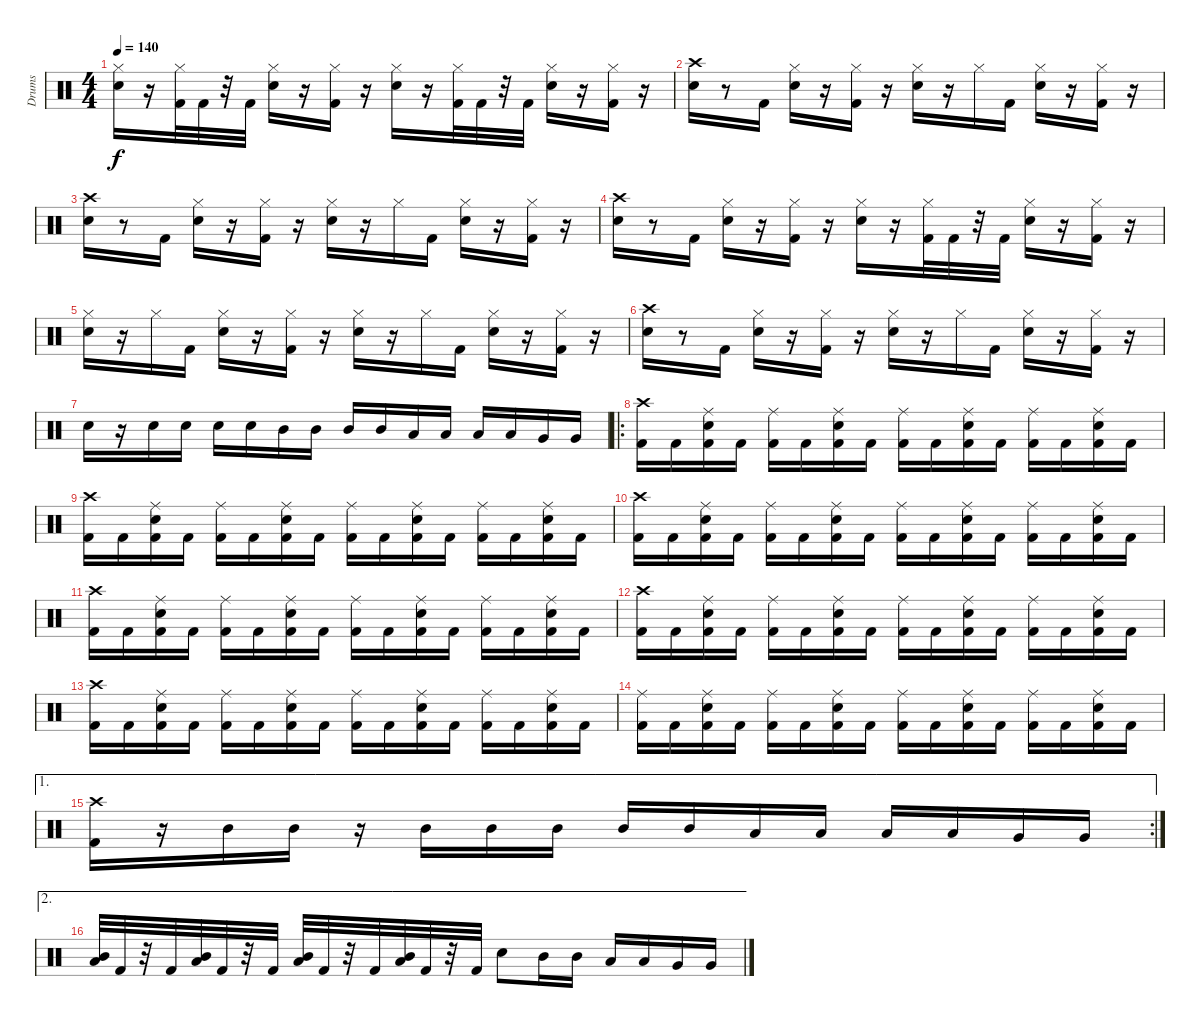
\track ("Drums" "Drums") {instrument percussion}
\staff {score}
\articulation defaults
\ts (4 4)
\tempo 140
\clef neutral
\ks c
("Snare (hit) 2" "Hi-Hat (closed)").16{dy f} r.16 ("Kick (hit) 2" "Hi-Hat (closed)").32 "Kick (hit) 2".32 r.32 "Kick (hit) 2".32 ("Snare (hit) 2" "Hi-Hat (closed)").16 r.16 ("Kick (hit) 2" "Hi-Hat (closed)").16 r.16 ("Snare (hit) 2" "Hi-Hat (closed)").16 r.16 ("Kick (hit) 2" "Hi-Hat (closed)").32 "Kick (hit) 2".32 r.32 "Kick (hit) 2".32 ("Snare (hit) 2" "Hi-Hat (closed)").16 r.16 ("Kick (hit) 2" "Hi-Hat (closed)").16 r.16 |
("Snare (hit) 2" "Crash high (hit)").16 r.8 "Kick (hit) 2".16 ("Snare (hit) 2" "Hi-Hat (closed)").16 r.16 ("Kick (hit) 2" "Hi-Hat (closed)").16 r.16 ("Snare (hit) 2" "Hi-Hat (closed)").16 r.16 "Hi-Hat (closed)".16 "Kick (hit) 2".16 ("Snare (hit) 2" "Hi-Hat (closed)").16 r.16 ("Kick (hit) 2" "Hi-Hat (closed)").16 r.16 |
("Snare (hit) 2" "Crash high (hit)").16 r.8 "Kick (hit) 2".16 ("Snare (hit) 2" "Hi-Hat (closed)").16 r.16 ("Kick (hit) 2" "Hi-Hat (closed)").16 r.16 ("Snare (hit) 2" "Hi-Hat (closed)").16 r.16 "Hi-Hat (closed)".16 "Kick (hit) 2".16 ("Snare (hit) 2" "Hi-Hat (closed)").16 r.16 ("Kick (hit) 2" "Hi-Hat (closed)").16 r.16 |
("Snare (hit) 2" "Crash high (hit)").16 r.8 "Kick (hit) 2".16 ("Snare (hit) 2" "Hi-Hat (closed)").16 r.16 ("Kick (hit) 2" "Hi-Hat (closed)").16 r.16 ("Snare (hit) 2" "Hi-Hat (closed)").16 r.16 ("Kick (hit) 2" "Hi-Hat (closed)").32 "Kick (hit) 2".32 r.32 "Kick (hit) 2".32 ("Snare (hit) 2" "Hi-Hat (closed)").16 r.16 ("Kick (hit) 2" "Hi-Hat (closed)").16 r.16 |
("Snare (hit) 2" "Hi-Hat (closed)").16 r.16 "Hi-Hat (closed)".16 "Kick (hit) 2".16 ("Snare (hit) 2" "Hi-Hat (closed)").16 r.16 ("Kick (hit) 2" "Hi-Hat (closed)").16 r.16 ("Snare (hit) 2" "Hi-Hat (closed)").16 r.16 "Hi-Hat (closed)".16 "Kick (hit) 2".16 ("Snare (hit) 2" "Hi-Hat (closed)").16 r.16 ("Kick (hit) 2" "Hi-Hat (closed)").16 r.16 |
("Snare (hit) 2" "Crash high (hit)").16 r.8 "Kick (hit) 2".16 ("Snare (hit) 2" "Hi-Hat (closed)").16 r.16 ("Kick (hit) 2" "Hi-Hat (closed)").16 r.16 ("Snare (hit) 2" "Hi-Hat (closed)").16 r.16 "Hi-Hat (closed)".16 "Kick (hit) 2".16 ("Snare (hit) 2" "Hi-Hat (closed)").16 r.16 ("Kick (hit) 2" "Hi-Hat (closed)").16 r.16 |
"Snare (hit) 2".16 r.16 "Snare (hit) 2".16 "Snare (hit) 2".16 "Snare (hit) 2".16 "Snare (hit) 2".16 "Mid Tom (hit)".16 "Mid Tom (hit)".16 "Mid Tom (hit)".16 "Mid Tom (hit)".16 "Low Tom (hit)".16 "Low Tom (hit)".16 "Low Tom (hit)".16 "Low Tom (hit)".16 "Very Low Tom (hit)".16 "Very Low Tom (hit)".16 |
\ro
("Kick (hit) 2" "Crash high (hit)").16 "Kick (hit) 2".16 ("Kick (hit) 2" "Snare (hit) 2" "Ride (middle)").16 "Kick (hit) 2".16 ("Kick (hit) 2" "Ride (middle)").16 "Kick (hit) 2".16 ("Kick (hit) 2" "Snare (hit) 2" "Ride (middle)").16 "Kick (hit) 2".16 ("Kick (hit) 2" "Ride (middle)").16 "Kick (hit) 2".16 ("Kick (hit) 2" "Snare (hit) 2" "Ride (middle)").16 "Kick (hit) 2".16 ("Kick (hit) 2" "Ride (middle)").16 "Kick (hit) 2".16 ("Kick (hit) 2" "Snare (hit) 2" "Ride (middle)").16 "Kick (hit) 2".16 |
("Kick (hit) 2" "Crash high (hit)").16 "Kick (hit) 2".16 ("Kick (hit) 2" "Snare (hit) 2" "Ride (middle)").16 "Kick (hit) 2".16 ("Kick (hit) 2" "Ride (middle)").16 "Kick (hit) 2".16 ("Kick (hit) 2" "Snare (hit) 2" "Ride (middle)").16 "Kick (hit) 2".16 ("Kick (hit) 2" "Ride (middle)").16 "Kick (hit) 2".16 ("Kick (hit) 2" "Snare (hit) 2" "Ride (middle)").16 "Kick (hit) 2".16 ("Kick (hit) 2" "Ride (middle)").16 "Kick (hit) 2".16 ("Kick (hit) 2" "Snare (hit) 2" "Ride (middle)").16 "Kick (hit) 2".16 |
("Kick (hit) 2" "Crash high (hit)").16 "Kick (hit) 2".16 ("Kick (hit) 2" "Snare (hit) 2" "Ride (middle)").16 "Kick (hit) 2".16 ("Kick (hit) 2" "Ride (middle)").16 "Kick (hit) 2".16 ("Kick (hit) 2" "Snare (hit) 2" "Ride (middle)").16 "Kick (hit) 2".16 ("Kick (hit) 2" "Ride (middle)").16 "Kick (hit) 2".16 ("Kick (hit) 2" "Snare (hit) 2" "Ride (middle)").16 "Kick (hit) 2".16 ("Kick (hit) 2" "Ride (middle)").16 "Kick (hit) 2".16 ("Kick (hit) 2" "Snare (hit) 2" "Ride (middle)").16 "Kick (hit) 2".16 |
("Kick (hit) 2" "Crash high (hit)").16 "Kick (hit) 2".16 ("Kick (hit) 2" "Snare (hit) 2" "Ride (middle)").16 "Kick (hit) 2".16 ("Kick (hit) 2" "Ride (middle)").16 "Kick (hit) 2".16 ("Kick (hit) 2" "Snare (hit) 2" "Ride (middle)").16 "Kick (hit) 2".16 ("Kick (hit) 2" "Ride (middle)").16 "Kick (hit) 2".16 ("Kick (hit) 2" "Snare (hit) 2" "Ride (middle)").16 "Kick (hit) 2".16 ("Kick (hit) 2" "Ride (middle)").16 "Kick (hit) 2".16 ("Kick (hit) 2" "Snare (hit) 2" "Ride (middle)").16 "Kick (hit) 2".16 |
("Kick (hit) 2" "Crash high (hit)").16 "Kick (hit) 2".16 ("Kick (hit) 2" "Snare (hit) 2" "Ride (middle)").16 "Kick (hit) 2".16 ("Kick (hit) 2" "Ride (middle)").16 "Kick (hit) 2".16 ("Kick (hit) 2" "Snare (hit) 2" "Ride (middle)").16 "Kick (hit) 2".16 ("Kick (hit) 2" "Ride (middle)").16 "Kick (hit) 2".16 ("Kick (hit) 2" "Snare (hit) 2" "Ride (middle)").16 "Kick (hit) 2".16 ("Kick (hit) 2" "Ride (middle)").16 "Kick (hit) 2".16 ("Kick (hit) 2" "Snare (hit) 2" "Ride (middle)").16 "Kick (hit) 2".16 |
("Kick (hit) 2" "Crash high (hit)").16 "Kick (hit) 2".16 ("Kick (hit) 2" "Snare (hit) 2" "Ride (middle)").16 "Kick (hit) 2".16 ("Kick (hit) 2" "Ride (middle)").16 "Kick (hit) 2".16 ("Kick (hit) 2" "Snare (hit) 2" "Ride (middle)").16 "Kick (hit) 2".16 ("Kick (hit) 2" "Ride (middle)").16 "Kick (hit) 2".16 ("Kick (hit) 2" "Snare (hit) 2" "Ride (middle)").16 "Kick (hit) 2".16 ("Kick (hit) 2" "Ride (middle)").16 "Kick (hit) 2".16 ("Kick (hit) 2" "Snare (hit) 2" "Ride (middle)").16 "Kick (hit) 2".16 |
("Kick (hit) 2" "Ride (middle)").16 "Kick (hit) 2".16 ("Kick (hit) 2" "Snare (hit) 2" "Ride (middle)").16 "Kick (hit) 2".16 ("Kick (hit) 2" "Ride (middle)").16 "Kick (hit) 2".16 ("Kick (hit) 2" "Snare (hit) 2" "Ride (middle)").16 "Kick (hit) 2".16 ("Kick (hit) 2" "Ride (middle)").16 "Kick (hit) 2".16 ("Kick (hit) 2" "Snare (hit) 2" "Ride (middle)").16 "Kick (hit) 2".16 ("Kick (hit) 2" "Ride (middle)").16 "Kick (hit) 2".16 ("Kick (hit) 2" "Snare (hit) 2" "Ride (middle)").16 "Kick (hit) 2".16 |
\ae 1
\rc 2
("Kick (hit) 2" "Crash high (hit)").16 r.16 "Mid Tom (hit)".16 "Mid Tom (hit)".16 r.16 "Mid Tom (hit)".16 "Mid Tom (hit)".16 "Mid Tom (hit)".16 "Mid Tom (hit)".16 "Mid Tom (hit)".16 "Low Tom (hit)".16 "Low Tom (hit)".16 "Low Tom (hit)".16 "Low Tom (hit)".16 "Very Low Tom (hit)".16 "Very Low Tom (hit)".16 |
\ae 2
("Mid Tom (hit)" "Low Tom (hit)").32 "Kick (hit) 2".32 r.32 "Kick (hit) 2".32 ("Mid Tom (hit)" "Low Tom (hit)").32 "Kick (hit) 2".32 r.32 "Kick (hit) 2".32 ("Mid Tom (hit)" "Low Tom (hit)").32 "Kick (hit) 2".32 r.32 "Kick (hit) 2".32 ("Mid Tom (hit)" "Low Tom (hit)").32 "Kick (hit) 2".32 r.32 "Kick (hit) 2".32 "Snare (hit) 2".8 "Mid Tom (hit)".16 "Mid Tom (hit)".16 "Low Tom (hit)".16 "Low Tom (hit)".16 "Very Low Tom (hit)".16 "Very Low Tom (hit)".16
